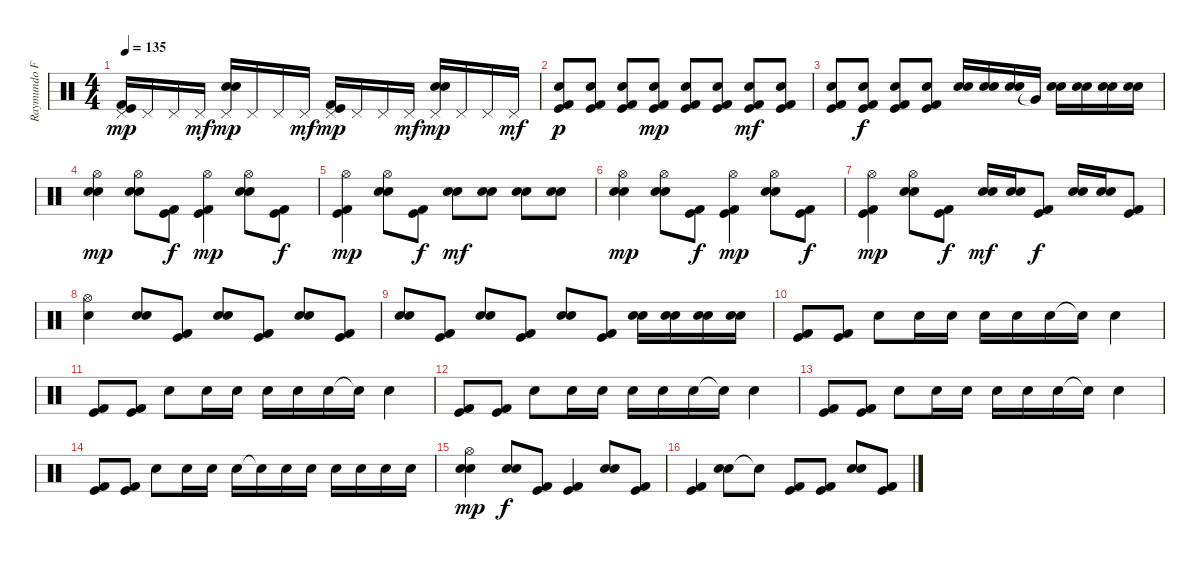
\track ("Raymundo Fajardo" "Raymundo F") {instrument percussion}
\staff {score}
\articulation defaults
\ts (4 4)
\tempo 135
\clef neutral
\ks c
("Kick (hit) 2" "Kick (hit)" "Pedal Hi-Hat (hit)").16{dy mp} "Pedal Hi-Hat (hit)".16 "Pedal Hi-Hat (hit)".16 "Pedal Hi-Hat (hit)".16{dy mf} ("Electric Snare (hit)" "Snare (hit) 2" "Pedal Hi-Hat (hit)").16{dy mp} "Pedal Hi-Hat (hit)".16 "Pedal Hi-Hat (hit)".16 "Pedal Hi-Hat (hit)".16{dy mf} ("Kick (hit) 2" "Kick (hit)" "Pedal Hi-Hat (hit)").16{dy mp} "Pedal Hi-Hat (hit)".16 "Pedal Hi-Hat (hit)".16 "Pedal Hi-Hat (hit)".16{dy mf} ("Electric Snare (hit)" "Snare (hit) 2" "Pedal Hi-Hat (hit)").16{dy mp} "Pedal Hi-Hat (hit)".16 "Pedal Hi-Hat (hit)".16 "Pedal Hi-Hat (hit)".16{dy mf} |
("Kick (hit) 2" "Kick (hit)" "Electric Snare (hit)").8{dy p} ("Kick (hit) 2" "Kick (hit)" "Electric Snare (hit)").8 ("Kick (hit) 2" "Kick (hit)" "Electric Snare (hit)").8 ("Kick (hit) 2" "Kick (hit)" "Electric Snare (hit)").8{dy mp} ("Kick (hit) 2" "Kick (hit)" "Electric Snare (hit)").8 ("Kick (hit) 2" "Kick (hit)" "Electric Snare (hit)").8 ("Kick (hit) 2" "Kick (hit)" "Electric Snare (hit)").8{dy mf} ("Kick (hit) 2" "Kick (hit)" "Electric Snare (hit)").8 |
("Kick (hit) 2" "Kick (hit)" "Electric Snare (hit)").8 ("Kick (hit) 2" "Kick (hit)" "Electric Snare (hit)").8{dy f} ("Kick (hit) 2" "Kick (hit)" "Electric Snare (hit)").8 ("Kick (hit) 2" "Kick (hit)" "Electric Snare (hit)").8 ("Electric Snare (hit)" "Snare (hit) 2").16 ("Electric Snare (hit)" "Snare (hit) 2").16 ("Electric Snare (hit)" "Snare (hit) 2").16 "Very Low Tom (hit)"{t}.16 ("Electric Snare (hit)" "Snare (hit) 2").16 ("Electric Snare (hit)" "Snare (hit) 2").16 ("Electric Snare (hit)" "Snare (hit) 2").16 ("Electric Snare (hit)" "Snare (hit) 2").16 |
("Electric Snare (hit)" "Hi-Hat (open)" "Snare (hit) 2").4{dy mp} ("Electric Snare (hit)" "Hi-Hat (open)" "Snare (hit) 2").8 ("Kick (hit) 2" "Kick (hit)").8{dy f} ("Kick (hit) 2" "Hi-Hat (open)" "Kick (hit)").4{dy mp} ("Electric Snare (hit)" "Hi-Hat (open)" "Snare (hit) 2").8 ("Kick (hit) 2" "Kick (hit)").8{dy f} |
("Kick (hit) 2" "Hi-Hat (open)" "Kick (hit)").4{dy mp} ("Electric Snare (hit)" "Hi-Hat (open)" "Snare (hit) 2").8 ("Kick (hit) 2" "Kick (hit)").8{dy f} ("Electric Snare (hit)" "Snare (hit) 2").8{dy mf} ("Electric Snare (hit)" "Snare (hit) 2").8 ("Electric Snare (hit)" "Snare (hit) 2").8 ("Electric Snare (hit)" "Snare (hit) 2").8 |
("Electric Snare (hit)" "Hi-Hat (open)" "Snare (hit) 2").4{dy mp} ("Electric Snare (hit)" "Hi-Hat (open)" "Snare (hit) 2").8 ("Kick (hit) 2" "Kick (hit)").8{dy f} ("Kick (hit) 2" "Hi-Hat (open)" "Kick (hit)").4{dy mp} ("Electric Snare (hit)" "Hi-Hat (open)" "Snare (hit) 2").8 ("Kick (hit) 2" "Kick (hit)").8{dy f} |
("Kick (hit) 2" "Hi-Hat (open)" "Kick (hit)").4{dy mp} ("Electric Snare (hit)" "Hi-Hat (open)" "Snare (hit) 2").8 ("Kick (hit) 2" "Kick (hit)").8{dy f} ("Electric Snare (hit)" "Snare (hit) 2").16{dy mf} ("Electric Snare (hit)" "Snare (hit) 2").16 ("Kick (hit)" "Kick (hit) 2").8{dy f} ("Snare (hit) 2" "Electric Snare (hit)").16 ("Electric Snare (hit)" "Snare (hit) 2").16 ("Kick (hit) 2" "Kick (hit)").8 |
("Electric Snare (hit)" "Hi-Hat (open)").4 ("Electric Snare (hit)" "Snare (hit) 2").8 ("Kick (hit) 2" "Kick (hit)").8 ("Electric Snare (hit)" "Snare (hit) 2").8 ("Kick (hit) 2" "Kick (hit)").8 ("Electric Snare (hit)" "Snare (hit) 2").8 ("Kick (hit) 2" "Kick (hit)").8 |
("Electric Snare (hit)" "Snare (hit) 2").8 ("Kick (hit) 2" "Kick (hit)").8 ("Electric Snare (hit)" "Snare (hit) 2").8 ("Kick (hit) 2" "Kick (hit)").8 ("Electric Snare (hit)" "Snare (hit) 2").8 ("Kick (hit) 2" "Kick (hit)").8 ("Electric Snare (hit)" "Snare (hit) 2").16 ("Electric Snare (hit)" "Snare (hit) 2").16 ("Electric Snare (hit)" "Snare (hit) 2").16 ("Electric Snare (hit)" "Snare (hit) 2").16 |
("Kick (hit)" "Kick (hit) 2").8 ("Kick (hit)" "Kick (hit) 2").8 "Electric Snare (hit)".8 "Electric Snare (hit)".16 "Electric Snare (hit)".16 "Electric Snare (hit)".16 "Electric Snare (hit)".16 "Electric Snare (hit)".16 "Electric Snare (hit)"{t}.16 "Electric Snare (hit)".4 |
("Kick (hit)" "Kick (hit) 2").8 ("Kick (hit)" "Kick (hit) 2").8 "Electric Snare (hit)".8 "Electric Snare (hit)".16 "Electric Snare (hit)".16 "Electric Snare (hit)".16 "Electric Snare (hit)".16 "Electric Snare (hit)".16 "Electric Snare (hit)"{t}.16 "Electric Snare (hit)".4 |
("Kick (hit)" "Kick (hit) 2").8 ("Kick (hit)" "Kick (hit) 2").8 "Electric Snare (hit)".8 "Electric Snare (hit)".16 "Electric Snare (hit)".16 "Electric Snare (hit)".16 "Electric Snare (hit)".16 "Electric Snare (hit)".16 "Electric Snare (hit)"{t}.16 "Electric Snare (hit)".4 |
("Kick (hit)" "Kick (hit) 2").8 ("Kick (hit)" "Kick (hit) 2").8 "Electric Snare (hit)".8 "Electric Snare (hit)".16 "Electric Snare (hit)".16 "Electric Snare (hit)".16 "Electric Snare (hit)".16 "Electric Snare (hit)".16 "Electric Snare (hit)"{t}.16 "Electric Snare (hit)".4 |
("Kick (hit)" "Kick (hit) 2").8 ("Kick (hit)" "Kick (hit) 2").8 "Electric Snare (hit)".8 "Electric Snare (hit)".16 "Electric Snare (hit)".16 "Electric Snare (hit)".16 "Electric Snare (hit)"{t}.16 "Electric Snare (hit)".16 "Electric Snare (hit)".16 "Electric Snare (hit)".16 "Electric Snare (hit)".16 "Electric Snare (hit)".16 "Electric Snare (hit)".16 |
("Electric Snare (hit)" "Hi-Hat (open)" "Snare (hit) 2").4{dy mp} ("Electric Snare (hit)" "Snare (hit) 2").8{dy f} ("Kick (hit) 2" "Kick (hit)").8 ("Kick (hit) 2" "Kick (hit)").4 ("Electric Snare (hit)" "Snare (hit) 2").8 ("Kick (hit) 2" "Kick (hit)").8 |
("Kick (hit) 2" "Kick (hit)").4 ("Electric Snare (hit)" "Snare (hit) 2").8 "Snare (hit) 2"{t}.8 ("Kick (hit) 2" "Kick (hit)").8 ("Kick (hit) 2" "Kick (hit)").8 ("Electric Snare (hit)" "Snare (hit) 2").8 ("Kick (hit) 2" "Kick (hit)").8
